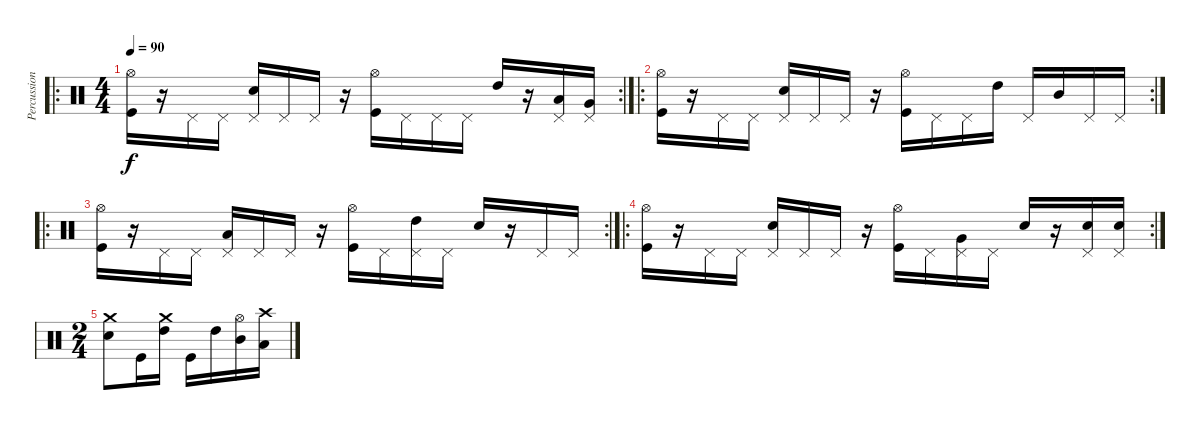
\track ("Percussions" "Percussion") {instrument percussion}
\staff {score}
\articulation defaults
\ro
\rc 2
\ts (4 4)
\tempo 90
\clef neutral
\ks c
("Hi-Hat (open)" "Kick (hit)").16{dy f} r.16 "Pedal Hi-Hat (hit)".16 "Pedal Hi-Hat (hit)".16 ("Pedal Hi-Hat (hit)" "Snare (hit) 2").16 "Pedal Hi-Hat (hit)".16 "Pedal Hi-Hat (hit)".16 r.16 ("Hi-Hat (open)" "Kick (hit)").16 "Pedal Hi-Hat (hit)".16 "Pedal Hi-Hat (hit)".16 "Pedal Hi-Hat (hit)".16 "High Tom (hit)".16 r.16 ("Pedal Hi-Hat (hit)" "Low Tom (hit)").16 ("Pedal Hi-Hat (hit)" "Very Low Tom (hit)").16 |
\ro
\rc 2
("Hi-Hat (open)" "Kick (hit)").16 r.16 "Pedal Hi-Hat (hit)".16 "Pedal Hi-Hat (hit)".16 ("Pedal Hi-Hat (hit)" "Snare (hit) 2").16 "Pedal Hi-Hat (hit)".16 "Pedal Hi-Hat (hit)".16 r.16 ("Hi-Hat (open)" "Kick (hit)").16 "Pedal Hi-Hat (hit)".16 "Pedal Hi-Hat (hit)".16 "High Tom (hit)".16 "Pedal Hi-Hat (hit)".16 "Mid Tom (hit)".16 "Pedal Hi-Hat (hit)".16 "Pedal Hi-Hat (hit)".16 |
\ro
\rc 2
("Hi-Hat (open)" "Kick (hit)").16 r.16 "Pedal Hi-Hat (hit)".16 "Pedal Hi-Hat (hit)".16 ("Pedal Hi-Hat (hit)" "Low Tom (hit)").16 "Pedal Hi-Hat (hit)".16 "Pedal Hi-Hat (hit)".16 r.16 ("Hi-Hat (open)" "Kick (hit)").16 "Pedal Hi-Hat (hit)".16 ("Pedal Hi-Hat (hit)" "High Tom (hit)").16 "Pedal Hi-Hat (hit)".16 "Snare (hit) 2".16 r.16 "Pedal Hi-Hat (hit)".16 "Pedal Hi-Hat (hit)".16 |
\ro
\rc 2
("Hi-Hat (open)" "Kick (hit)").16 r.16 "Pedal Hi-Hat (hit)".16 "Pedal Hi-Hat (hit)".16 ("Pedal Hi-Hat (hit)" "Snare (hit) 2").16 "Pedal Hi-Hat (hit)".16 "Pedal Hi-Hat (hit)".16 r.16 ("Hi-Hat (open)" "Kick (hit)").16 "Pedal Hi-Hat (hit)".16 ("Pedal Hi-Hat (hit)" "Very Low Tom (hit)").16 "Pedal Hi-Hat (hit)".16 "Snare (hit) 2".16 r.16 ("Pedal Hi-Hat (hit)" "Snare (hit) 2").16 ("Pedal Hi-Hat (hit)" "Snare (hit) 2").16 |
\ts (2 4)
("Crash medium (hit)" "Snare (hit) 2").8 "Kick (hit)".16 ("Crash medium (hit)" "High Tom (hit)").16 "Kick (hit)".16 "High Tom (hit)".16 ("Hi-Hat (open)" "Mid Tom (hit)").16 ("Crash high (hit)" "Low Tom (hit)").16
